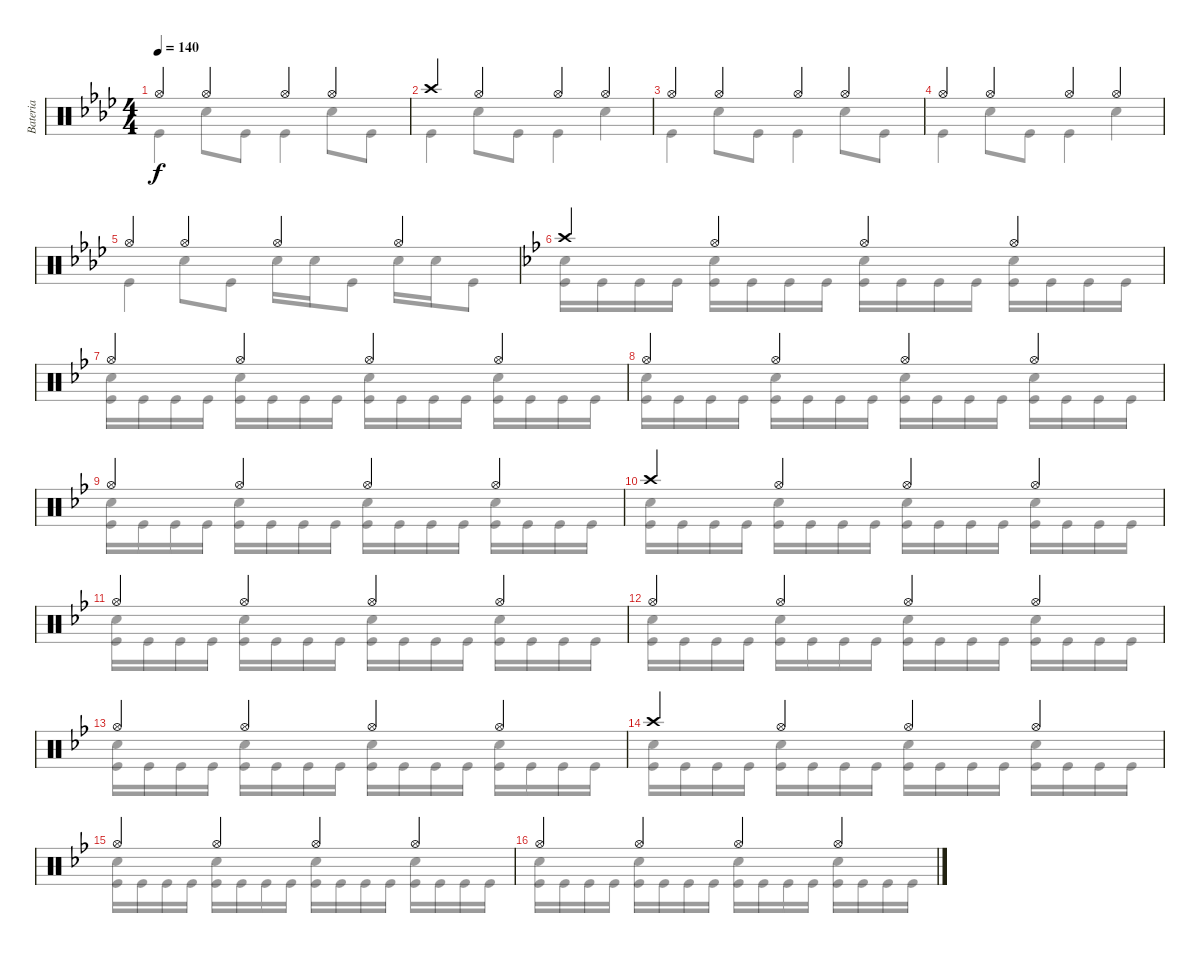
\track ("Bateria" "Bateria") {instrument percussion}
\staff {score}
\articulation defaults
\voice
\ts (4 4)
\tempo 140
\clef neutral
\ks fminor "Hi-Hat (open)".4{dy f} "Hi-Hat (open)".4 "Hi-Hat (open)".4 "Hi-Hat (open)".4
|
"Crash high (hit)".4 "Hi-Hat (open)".4 "Hi-Hat (open)".4 "Hi-Hat (open)".4 |
"Hi-Hat (open)".4 "Hi-Hat (open)".4 "Hi-Hat (open)".4 "Hi-Hat (open)".4 |
"Hi-Hat (open)".4 "Hi-Hat (open)".4 "Hi-Hat (open)".4 "Hi-Hat (open)".4 |
"Hi-Hat (open)".4 "Hi-Hat (open)".4 "Hi-Hat (open)".4 "Hi-Hat (open)".4 |
\ks gminor "Crash high (hit)".4 "Hi-Hat (open)".4 "Hi-Hat (open)".4 "Hi-Hat (open)".4
|
"Hi-Hat (open)".4 "Hi-Hat (open)".4 "Hi-Hat (open)".4 "Hi-Hat (open)".4 |
"Hi-Hat (open)".4 "Hi-Hat (open)".4 "Hi-Hat (open)".4 "Hi-Hat (open)".4 |
"Hi-Hat (open)".4 "Hi-Hat (open)".4 "Hi-Hat (open)".4 "Hi-Hat (open)".4 |
"Crash high (hit)".4 "Hi-Hat (open)".4 "Hi-Hat (open)".4 "Hi-Hat (open)".4 |
"Hi-Hat (open)".4 "Hi-Hat (open)".4 "Hi-Hat (open)".4 "Hi-Hat (open)".4 |
"Hi-Hat (open)".4 "Hi-Hat (open)".4 "Hi-Hat (open)".4 "Hi-Hat (open)".4 |
"Hi-Hat (open)".4 "Hi-Hat (open)".4 "Hi-Hat (open)".4 "Hi-Hat (open)".4 |
"Crash high (hit)".4 "Hi-Hat (open)".4 "Hi-Hat (open)".4 "Hi-Hat (open)".4 |
"Hi-Hat (open)".4 "Hi-Hat (open)".4 "Hi-Hat (open)".4 "Hi-Hat (open)".4 |
"Hi-Hat (open)".4 "Hi-Hat (open)".4 "Hi-Hat (open)".4 "Hi-Hat (open)".4
\voice
\clef neutral
\ottava regular
\simile none
\ks fminor "Kick (hit)".4{dy f} "Snare (hit) 2".8 "Kick (hit)".8 "Kick (hit)".4 "Snare (hit) 2".8 "Kick (hit)".8
|
"Kick (hit)".4 "Snare (hit) 2".8 "Kick (hit)".8 "Kick (hit)".4 "Snare (hit) 2".4 |
"Kick (hit)".4 "Snare (hit) 2".8 "Kick (hit)".8 "Kick (hit)".4 "Snare (hit) 2".8 "Kick (hit)".8 |
"Kick (hit)".4 "Snare (hit) 2".8 "Kick (hit)".8 "Kick (hit)".4 "Snare (hit) 2".4 |
"Kick (hit)".4 "Snare (hit) 2".8 "Kick (hit)".8 "Snare (hit) 2".16 "Snare (hit) 2".16 "Kick (hit)".8 "Snare (hit) 2".16 "Snare (hit) 2".16 "Kick (hit)".8 |
\ks gminor
("Snare (hit) 2" "Kick (hit)").16 "Kick (hit)".16 "Kick (hit)".16 "Kick (hit)".16 ("Snare (hit) 2" "Kick (hit)").16 "Kick (hit)".16 "Kick (hit)".16 "Kick (hit)".16 ("Snare (hit) 2" "Kick (hit)").16 "Kick (hit)".16 "Kick (hit)".16 "Kick (hit)".16 ("Snare (hit) 2" "Kick (hit)").16 "Kick (hit)".16 "Kick (hit)".16 "Kick (hit)".16 |
("Snare (hit) 2" "Kick (hit)").16 "Kick (hit)".16 "Kick (hit)".16 "Kick (hit)".16 ("Snare (hit) 2" "Kick (hit)").16 "Kick (hit)".16 "Kick (hit)".16 "Kick (hit)".16 ("Snare (hit) 2" "Kick (hit)").16 "Kick (hit)".16 "Kick (hit)".16 "Kick (hit)".16 ("Snare (hit) 2" "Kick (hit)").16 "Kick (hit)".16 "Kick (hit)".16 "Kick (hit)".16 |
("Snare (hit) 2" "Kick (hit)").16 "Kick (hit)".16 "Kick (hit)".16 "Kick (hit)".16 ("Snare (hit) 2" "Kick (hit)").16 "Kick (hit)".16 "Kick (hit)".16 "Kick (hit)".16 ("Snare (hit) 2" "Kick (hit)").16 "Kick (hit)".16 "Kick (hit)".16 "Kick (hit)".16 ("Snare (hit) 2" "Kick (hit)").16 "Kick (hit)".16 "Kick (hit)".16 "Kick (hit)".16 |
("Snare (hit) 2" "Kick (hit)").16 "Kick (hit)".16 "Kick (hit)".16 "Kick (hit)".16 ("Snare (hit) 2" "Kick (hit)").16 "Kick (hit)".16 "Kick (hit)".16 "Kick (hit)".16 ("Snare (hit) 2" "Kick (hit)").16 "Kick (hit)".16 "Kick (hit)".16 "Kick (hit)".16 ("Snare (hit) 2" "Kick (hit)").16 "Kick (hit)".16 "Kick (hit)".16 "Kick (hit)".16 |
("Snare (hit) 2" "Kick (hit)").16 "Kick (hit)".16 "Kick (hit)".16 "Kick (hit)".16 ("Snare (hit) 2" "Kick (hit)").16 "Kick (hit)".16 "Kick (hit)".16 "Kick (hit)".16 ("Snare (hit) 2" "Kick (hit)").16 "Kick (hit)".16 "Kick (hit)".16 "Kick (hit)".16 ("Snare (hit) 2" "Kick (hit)").16 "Kick (hit)".16 "Kick (hit)".16 "Kick (hit)".16 |
("Snare (hit) 2" "Kick (hit)").16 "Kick (hit)".16 "Kick (hit)".16 "Kick (hit)".16 ("Snare (hit) 2" "Kick (hit)").16 "Kick (hit)".16 "Kick (hit)".16 "Kick (hit)".16 ("Snare (hit) 2" "Kick (hit)").16 "Kick (hit)".16 "Kick (hit)".16 "Kick (hit)".16 ("Snare (hit) 2" "Kick (hit)").16 "Kick (hit)".16 "Kick (hit)".16 "Kick (hit)".16 |
("Snare (hit) 2" "Kick (hit)").16 "Kick (hit)".16 "Kick (hit)".16 "Kick (hit)".16 ("Snare (hit) 2" "Kick (hit)").16 "Kick (hit)".16 "Kick (hit)".16 "Kick (hit)".16 ("Snare (hit) 2" "Kick (hit)").16 "Kick (hit)".16 "Kick (hit)".16 "Kick (hit)".16 ("Snare (hit) 2" "Kick (hit)").16 "Kick (hit)".16 "Kick (hit)".16 "Kick (hit)".16 |
("Snare (hit) 2" "Kick (hit)").16 "Kick (hit)".16 "Kick (hit)".16 "Kick (hit)".16 ("Snare (hit) 2" "Kick (hit)").16 "Kick (hit)".16 "Kick (hit)".16 "Kick (hit)".16 ("Snare (hit) 2" "Kick (hit)").16 "Kick (hit)".16 "Kick (hit)".16 "Kick (hit)".16 ("Snare (hit) 2" "Kick (hit)").16 "Kick (hit)".16 "Kick (hit)".16 "Kick (hit)".16 |
("Snare (hit) 2" "Kick (hit)").16 "Kick (hit)".16 "Kick (hit)".16 "Kick (hit)".16 ("Snare (hit) 2" "Kick (hit)").16 "Kick (hit)".16 "Kick (hit)".16 "Kick (hit)".16 ("Snare (hit) 2" "Kick (hit)").16 "Kick (hit)".16 "Kick (hit)".16 "Kick (hit)".16 ("Snare (hit) 2" "Kick (hit)").16 "Kick (hit)".16 "Kick (hit)".16 "Kick (hit)".16 |
("Snare (hit) 2" "Kick (hit)").16 "Kick (hit)".16 "Kick (hit)".16 "Kick (hit)".16 ("Snare (hit) 2" "Kick (hit)").16 "Kick (hit)".16 "Kick (hit)".16 "Kick (hit)".16 ("Snare (hit) 2" "Kick (hit)").16 "Kick (hit)".16 "Kick (hit)".16 "Kick (hit)".16 ("Snare (hit) 2" "Kick (hit)").16 "Kick (hit)".16 "Kick (hit)".16 "Kick (hit)".16 |
("Snare (hit) 2" "Kick (hit)").16 "Kick (hit)".16 "Kick (hit)".16 "Kick (hit)".16 ("Snare (hit) 2" "Kick (hit)").16 "Kick (hit)".16 "Kick (hit)".16 "Kick (hit)".16 ("Snare (hit) 2" "Kick (hit)").16 "Kick (hit)".16 "Kick (hit)".16 "Kick (hit)".16 ("Snare (hit) 2" "Kick (hit)").16 "Kick (hit)".16 "Kick (hit)".16 "Kick (hit)".16
